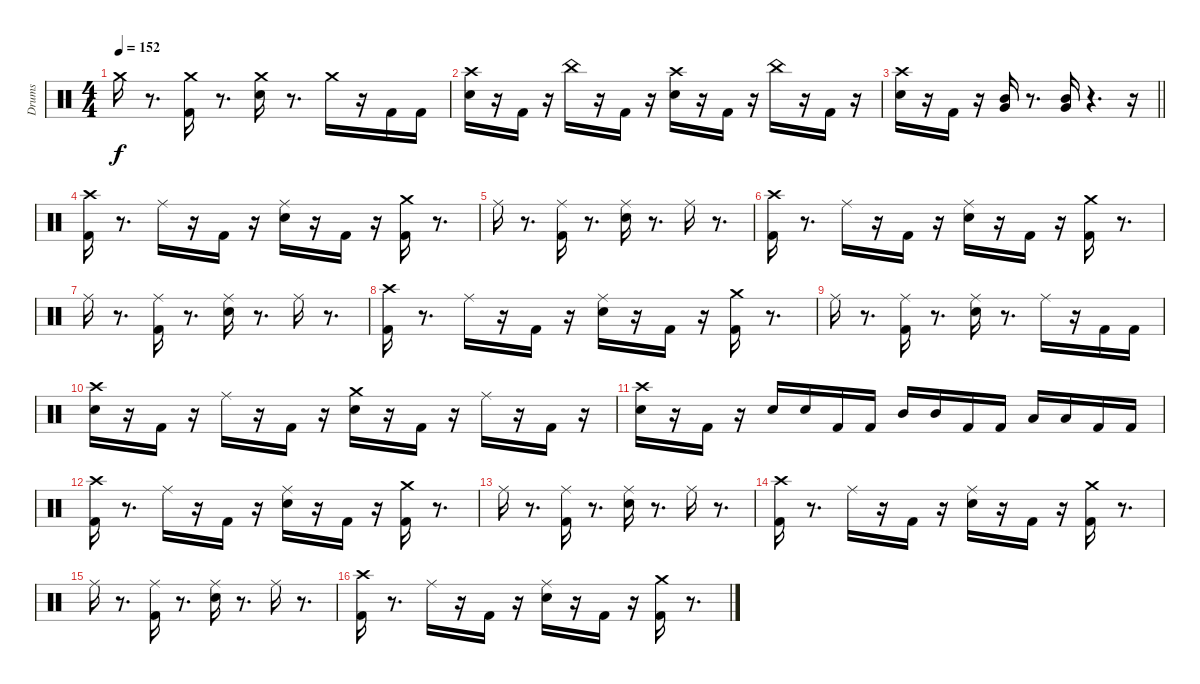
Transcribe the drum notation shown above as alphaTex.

\track ("Drums" "Drums") {instrument percussion}
\staff {score}
\articulation defaults
\ts (4 4)
\tempo 152
\clef neutral
\ks c "Crash medium (hit)".16{dy f}
r.8{d} ("Kick (hit) 2" "Crash medium (hit)").16 r.8{d} ("Snare (hit) 2" "Crash medium (hit)").16 r.8{d} "Crash medium (hit)".16 r.16 "Kick (hit) 2".16 "Kick (hit) 2".16 |
("Snare (hit) 2" "Crash high (hit)").16 r.16 "Kick (hit) 2".16 r.16 "China (hit)".16 r.16 "Kick (hit) 2".16 r.16 ("Snare (hit) 2" "Crash high (hit)").16 r.16 "Kick (hit) 2".16 r.16 "China (hit)".16 r.16 "Kick (hit) 2".16 r.16 |
\barLineRight lightlight
("Snare (hit) 2" "Crash high (hit)").16 r.16 "Kick (hit) 2".16 r.16 ("Very Low Tom (hit)" "Mid Tom (hit)").16 r.8{d} ("Very Low Tom (hit)" "Mid Tom (hit)").16 r.4{d} r.16 |
\section ("" " ")
("Kick (hit) 2" "Crash high (hit)").16 r.8{d} "Ride (middle)".16 r.16 "Kick (hit) 2".16 r.16 ("Snare (hit) 2" "Ride (middle)").16 r.16 "Kick (hit) 2".16 r.16 ("Kick (hit) 2" "Crash medium (hit)").16 r.8{d} |
"Ride (middle)".16 r.8{d} ("Kick (hit) 2" "Ride (middle)").16 r.8{d} ("Snare (hit) 2" "Ride (middle)").16 r.8{d} "Ride (middle)".16 r.8{d} |
("Kick (hit) 2" "Crash high (hit)").16 r.8{d} "Ride (middle)".16 r.16 "Kick (hit) 2".16 r.16 ("Snare (hit) 2" "Ride (middle)").16 r.16 "Kick (hit) 2".16 r.16 ("Kick (hit) 2" "Crash medium (hit)").16 r.8{d} |
"Ride (middle)".16 r.8{d} ("Kick (hit) 2" "Ride (middle)").16 r.8{d} ("Snare (hit) 2" "Ride (middle)").16 r.8{d} "Ride (middle)".16 r.8{d} |
("Kick (hit) 2" "Crash high (hit)").16 r.8{d} "Ride (middle)".16 r.16 "Kick (hit) 2".16 r.16 ("Snare (hit) 2" "Ride (middle)").16 r.16 "Kick (hit) 2".16 r.16 ("Kick (hit) 2" "Crash medium (hit)").16 r.8{d} |
"Ride (middle)".16 r.8{d} ("Kick (hit) 2" "Ride (middle)").16 r.8{d} ("Snare (hit) 2" "Ride (middle)").16 r.8{d} "Ride (middle)".16 r.16 "Kick (hit) 2".16 "Kick (hit) 2".16 |
("Snare (hit) 2" "Crash high (hit)").16 r.16 "Kick (hit) 2".16 r.16 "Ride (middle)".16 r.16 "Kick (hit) 2".16 r.16 ("Snare (hit) 2" "Crash medium (hit)").16 r.16 "Kick (hit) 2".16 r.16 "Ride (middle)".16 r.16 "Kick (hit) 2".16 r.16 |
("Snare (hit) 2" "Crash high (hit)").16 r.16 "Kick (hit) 2".16 r.16 "Snare (hit) 2".16 "Snare (hit) 2".16 "Kick (hit) 2".16 "Kick (hit) 2".16 "Mid Tom (hit)".16 "Mid Tom (hit)".16 "Kick (hit) 2".16 "Kick (hit) 2".16 "Low Tom (hit)".16 "Low Tom (hit)".16 "Kick (hit) 2".16 "Kick (hit) 2".16 |
("Kick (hit) 2" "Crash high (hit)").16 r.8{d} "Ride (middle)".16 r.16 "Kick (hit) 2".16 r.16 ("Snare (hit) 2" "Ride (middle)").16 r.16 "Kick (hit) 2".16 r.16 ("Kick (hit) 2" "Crash medium (hit)").16 r.8{d} |
"Ride (middle)".16 r.8{d} ("Kick (hit) 2" "Ride (middle)").16 r.8{d} ("Snare (hit) 2" "Ride (middle)").16 r.8{d} "Ride (middle)".16 r.8{d} |
("Kick (hit) 2" "Crash high (hit)").16 r.8{d} "Ride (middle)".16 r.16 "Kick (hit) 2".16 r.16 ("Snare (hit) 2" "Ride (middle)").16 r.16 "Kick (hit) 2".16 r.16 ("Kick (hit) 2" "Crash medium (hit)").16 r.8{d} |
"Ride (middle)".16 r.8{d} ("Kick (hit) 2" "Ride (middle)").16 r.8{d} ("Snare (hit) 2" "Ride (middle)").16 r.8{d} "Ride (middle)".16 r.8{d} |
("Kick (hit) 2" "Crash high (hit)").16 r.8{d} "Ride (middle)".16 r.16 "Kick (hit) 2".16 r.16 ("Snare (hit) 2" "Ride (middle)").16 r.16 "Kick (hit) 2".16 r.16 ("Kick (hit) 2" "Crash medium (hit)").16 r.8{d}
